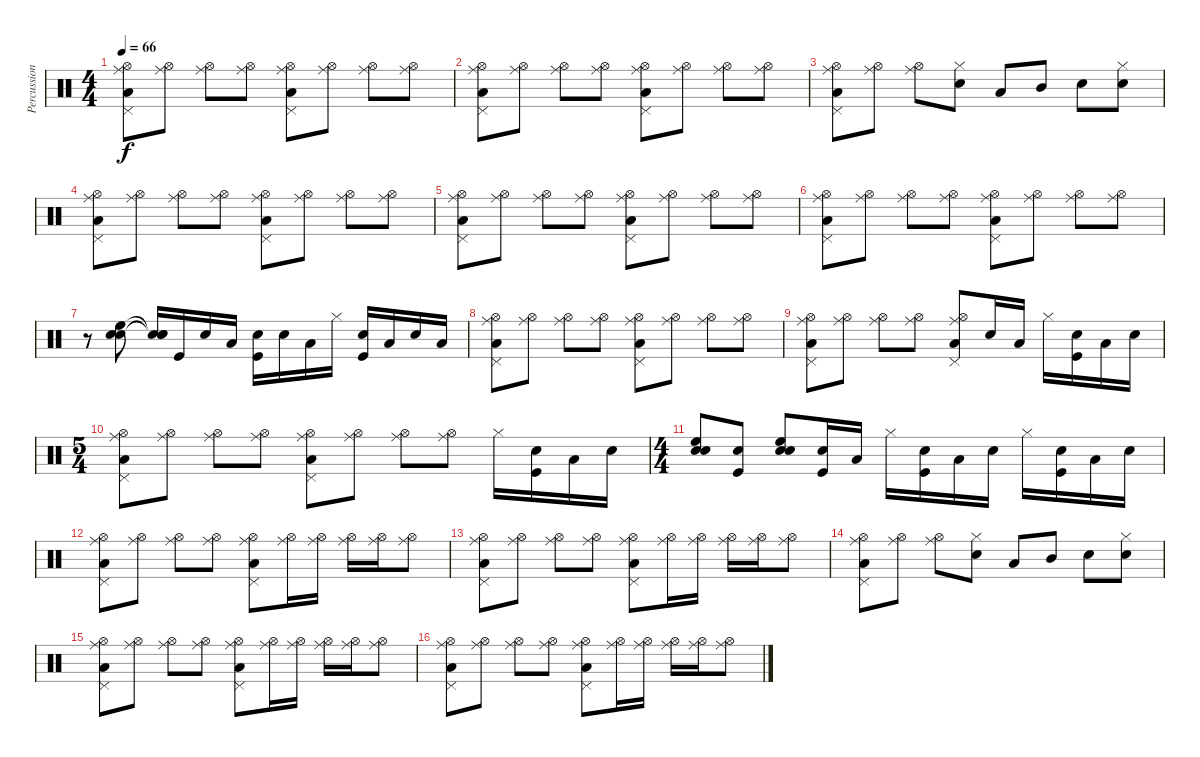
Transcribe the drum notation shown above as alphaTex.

\track ("Percussions" "Percussion") {instrument percussion}
\staff {score}
\articulation defaults
\ts (4 4)
\tempo 66
\clef neutral
\ks c
("Pedal Hi-Hat (hit)" "Low Tom (hit)" "Hi-Hat (open)" "Ride (middle)").8{dy f} ("Ride (middle)" "Hi-Hat (open)").8 ("Hi-Hat (open)" "Ride (middle)").8 ("Hi-Hat (open)" "Ride (middle)").8 ("Pedal Hi-Hat (hit)" "Low Tom (hit)" "Hi-Hat (open)" "Ride (middle)").8 ("Ride (middle)" "Hi-Hat (open)").8 ("Hi-Hat (open)" "Ride (middle)").8 ("Hi-Hat (open)" "Ride (middle)").8 |
("Pedal Hi-Hat (hit)" "Low Tom (hit)" "Hi-Hat (open)" "Ride (middle)").8 ("Ride (middle)" "Hi-Hat (open)").8 ("Hi-Hat (open)" "Ride (middle)").8 ("Hi-Hat (open)" "Ride (middle)").8 ("Pedal Hi-Hat (hit)" "Low Tom (hit)" "Hi-Hat (open)" "Ride (middle)").8 ("Ride (middle)" "Hi-Hat (open)").8 ("Hi-Hat (open)" "Ride (middle)").8 ("Hi-Hat (open)" "Ride (middle)").8 |
("Pedal Hi-Hat (hit)" "Low Tom (hit)" "Hi-Hat (open)" "Ride (middle)").8 ("Ride (middle)" "Hi-Hat (open)").8 ("Hi-Hat (open)" "Ride (middle)").8 ("Hi-Hat (closed)" "Electric Snare (hit)").8 "Low Tom (hit)".8 "Mid Tom (hit)".8 "Snare (hit) 2".8 ("Hi-Hat (closed)" "Electric Snare (hit)").8 |
("Pedal Hi-Hat (hit)" "Low Tom (hit)" "Hi-Hat (open)" "Ride (middle)").8 ("Ride (middle)" "Hi-Hat (open)").8 ("Hi-Hat (open)" "Ride (middle)").8 ("Hi-Hat (open)" "Ride (middle)").8 ("Pedal Hi-Hat (hit)" "Low Tom (hit)" "Hi-Hat (open)" "Ride (middle)").8 ("Ride (middle)" "Hi-Hat (open)").8 ("Hi-Hat (open)" "Ride (middle)").8 ("Hi-Hat (open)" "Ride (middle)").8 |
("Pedal Hi-Hat (hit)" "Low Tom (hit)" "Hi-Hat (open)" "Ride (middle)").8 ("Ride (middle)" "Hi-Hat (open)").8 ("Hi-Hat (open)" "Ride (middle)").8 ("Hi-Hat (open)" "Ride (middle)").8 ("Pedal Hi-Hat (hit)" "Low Tom (hit)" "Hi-Hat (open)" "Ride (middle)").8 ("Ride (middle)" "Hi-Hat (open)").8 ("Hi-Hat (open)" "Ride (middle)").8 ("Hi-Hat (open)" "Ride (middle)").8 |
("Pedal Hi-Hat (hit)" "Low Tom (hit)" "Hi-Hat (open)" "Ride (middle)").8 ("Ride (middle)" "Hi-Hat (open)").8 ("Hi-Hat (open)" "Ride (middle)").8 ("Hi-Hat (open)" "Ride (middle)").8 ("Pedal Hi-Hat (hit)" "Low Tom (hit)" "Hi-Hat (open)" "Ride (middle)").8 ("Ride (middle)" "Hi-Hat (open)").8 ("Hi-Hat (open)" "Ride (middle)").8 ("Hi-Hat (open)" "Ride (middle)").8 |
r.8 ("High Floor Tom (hit)" "Snare (hit) 2" "Electric Snare (hit)").8 ("Snare (hit)"{t} "Snare (hit)"{t} "Snare (hit)"{t}).16 "Kick (hit)".16 "Snare (hit) 2".16 "Low Tom (hit)".16 ("Kick (hit)" "Snare (hit) 2").16 "Electric Snare (hit)".16 "Low Floor Tom (hit)".16 "Hi-Hat (closed)".16 ("Snare (hit) 2" "Kick (hit)").16 "Low Tom (hit)".16 "Snare (hit) 2".16 "Low Floor Tom (hit)".16 |
("Pedal Hi-Hat (hit)" "Low Tom (hit)" "Hi-Hat (open)" "Ride (middle)").8 ("Ride (middle)" "Hi-Hat (open)").8 ("Hi-Hat (open)" "Ride (middle)").8 ("Hi-Hat (open)" "Ride (middle)").8 ("Pedal Hi-Hat (hit)" "Low Tom (hit)" "Hi-Hat (open)" "Ride (middle)").8 ("Ride (middle)" "Hi-Hat (open)").8 ("Hi-Hat (open)" "Ride (middle)").8 ("Hi-Hat (open)" "Ride (middle)").8 |
("Pedal Hi-Hat (hit)" "Low Tom (hit)" "Hi-Hat (open)" "Ride (middle)").8 ("Ride (middle)" "Hi-Hat (open)").8 ("Hi-Hat (open)" "Ride (middle)").8 ("Hi-Hat (open)" "Ride (middle)").8 ("Pedal Hi-Hat (hit)" "Low Tom (hit)" "Hi-Hat (open)" "Ride (middle)").8 "Electric Snare (hit)".16 "Low Floor Tom (hit)".16 "Hi-Hat (closed)".16 ("Snare (hit) 2" "Kick (hit)").16 "Low Tom (hit)".16 "Snare (hit) 2".16 |
\ts (5 4)
("Pedal Hi-Hat (hit)" "Low Tom (hit)" "Hi-Hat (open)" "Ride (middle)").8 ("Ride (middle)" "Hi-Hat (open)").8 ("Hi-Hat (open)" "Ride (middle)").8 ("Hi-Hat (open)" "Ride (middle)").8 ("Pedal Hi-Hat (hit)" "Low Tom (hit)" "Hi-Hat (open)" "Ride (middle)").8 ("Ride (middle)" "Hi-Hat (open)").8 ("Hi-Hat (open)" "Ride (middle)").8 ("Hi-Hat (open)" "Ride (middle)").8 "Hi-Hat (closed)".16 ("Snare (hit) 2" "Kick (hit)").16 "Low Tom (hit)".16 "Snare (hit) 2".16 |
\ts (4 4)
("High Floor Tom (hit)" "Snare (hit) 2" "Electric Snare (hit)").8 ("Kick (hit)" "Snare (hit) 2").8 ("High Floor Tom (hit)" "Snare (hit) 2" "Electric Snare (hit)").8 ("Kick (hit)" "Snare (hit) 2").16 "Low Tom (hit)".16 "Hi-Hat (closed)".16 ("Snare (hit) 2" "Kick (hit)").16 "Low Tom (hit)".16 "Snare (hit) 2".16 "Hi-Hat (closed)".16 ("Snare (hit) 2" "Kick (hit)").16 "Low Tom (hit)".16 "Snare (hit) 2".16 |
("Pedal Hi-Hat (hit)" "Low Tom (hit)" "Hi-Hat (open)" "Ride (middle)").8 ("Ride (middle)" "Hi-Hat (open)").8 ("Hi-Hat (open)" "Ride (middle)").8 ("Hi-Hat (open)" "Ride (middle)").8 ("Pedal Hi-Hat (hit)" "Low Tom (hit)" "Hi-Hat (open)" "Ride (middle)").8 ("Ride (middle)" "Hi-Hat (open)").16 ("Ride (middle)" "Hi-Hat (open)").16 ("Ride (middle)" "Hi-Hat (open)").16 ("Hi-Hat (open)" "Ride (middle)").16 ("Hi-Hat (open)" "Ride (middle)").8 |
("Pedal Hi-Hat (hit)" "Low Tom (hit)" "Hi-Hat (open)" "Ride (middle)").8 ("Ride (middle)" "Hi-Hat (open)").8 ("Hi-Hat (open)" "Ride (middle)").8 ("Hi-Hat (open)" "Ride (middle)").8 ("Pedal Hi-Hat (hit)" "Low Tom (hit)" "Hi-Hat (open)" "Ride (middle)").8 ("Ride (middle)" "Hi-Hat (open)").16 ("Ride (middle)" "Hi-Hat (open)").16 ("Ride (middle)" "Hi-Hat (open)").16 ("Hi-Hat (open)" "Ride (middle)").16 ("Hi-Hat (open)" "Ride (middle)").8 |
("Pedal Hi-Hat (hit)" "Low Tom (hit)" "Hi-Hat (open)" "Ride (middle)").8 ("Ride (middle)" "Hi-Hat (open)").8 ("Hi-Hat (open)" "Ride (middle)").8 ("Hi-Hat (closed)" "Electric Snare (hit)").8 "Low Tom (hit)".8 "Mid Tom (hit)".8 "Snare (hit) 2".8 ("Hi-Hat (closed)" "Electric Snare (hit)").8 |
("Pedal Hi-Hat (hit)" "Low Tom (hit)" "Hi-Hat (open)" "Ride (middle)").8 ("Ride (middle)" "Hi-Hat (open)").8 ("Hi-Hat (open)" "Ride (middle)").8 ("Hi-Hat (open)" "Ride (middle)").8 ("Pedal Hi-Hat (hit)" "Low Tom (hit)" "Hi-Hat (open)" "Ride (middle)").8 ("Ride (middle)" "Hi-Hat (open)").16 ("Ride (middle)" "Hi-Hat (open)").16 ("Ride (middle)" "Hi-Hat (open)").16 ("Hi-Hat (open)" "Ride (middle)").16 ("Hi-Hat (open)" "Ride (middle)").8 |
("Pedal Hi-Hat (hit)" "Low Tom (hit)" "Hi-Hat (open)" "Ride (middle)").8 ("Ride (middle)" "Hi-Hat (open)").8 ("Hi-Hat (open)" "Ride (middle)").8 ("Hi-Hat (open)" "Ride (middle)").8 ("Pedal Hi-Hat (hit)" "Low Tom (hit)" "Hi-Hat (open)" "Ride (middle)").8 ("Ride (middle)" "Hi-Hat (open)").16 ("Ride (middle)" "Hi-Hat (open)").16 ("Ride (middle)" "Hi-Hat (open)").16 ("Hi-Hat (open)" "Ride (middle)").16 ("Hi-Hat (open)" "Ride (middle)").8
